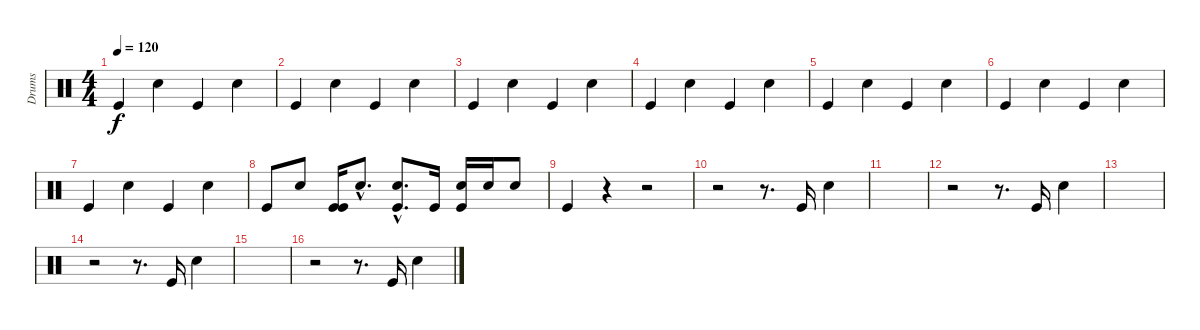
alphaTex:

\track ("Drums" "Drums") {instrument percussion}
\staff {score}
\articulation defaults
\ts (4 4)
\tempo 120
\clef neutral
\ks c "Kick (hit)".4{dy f} "Snare (hit) 2".4 "Kick (hit)".4 "Snare (hit) 2".4
|
"Kick (hit)".4 "Snare (hit) 2".4 "Kick (hit)".4 "Snare (hit) 2".4 |
"Kick (hit)".4 "Snare (hit) 2".4 "Kick (hit)".4 "Snare (hit) 2".4 |
"Kick (hit)".4 "Snare (hit) 2".4 "Kick (hit)".4 "Snare (hit) 2".4 |
"Kick (hit)".4 "Snare (hit) 2".4 "Kick (hit)".4 "Snare (hit) 2".4 |
"Kick (hit)".4 "Snare (hit) 2".4 "Kick (hit)".4 "Snare (hit) 2".4 |
"Kick (hit)".4 "Snare (hit) 2".4 "Kick (hit)".4 "Snare (hit) 2".4 |
"Kick (hit)".8 "Snare (hit) 2".8 ("Kick (hit)" "Kick (hit)").16 "Snare (hit) 2"{hac}.8{d} ("Kick (hit)"{hac} "Snare (hit) 2"{hac}).8{d} "Kick (hit)".16 ("Snare (hit) 2" "Kick (hit)").16 "Snare (hit) 2".16 "Snare (hit) 2".8 |
"Kick (hit)".4 r.4 r.2 |
r.2 r.8{d} "Kick (hit)".16 "Snare (hit) 2".4 |
|
r.2 r.8{d} "Kick (hit)".16 "Snare (hit) 2".4 |
|
r.2 r.8{d} "Kick (hit)".16 "Snare (hit) 2".4 |
|
r.2 r.8{d} "Kick (hit)".16 "Snare (hit) 2".4
